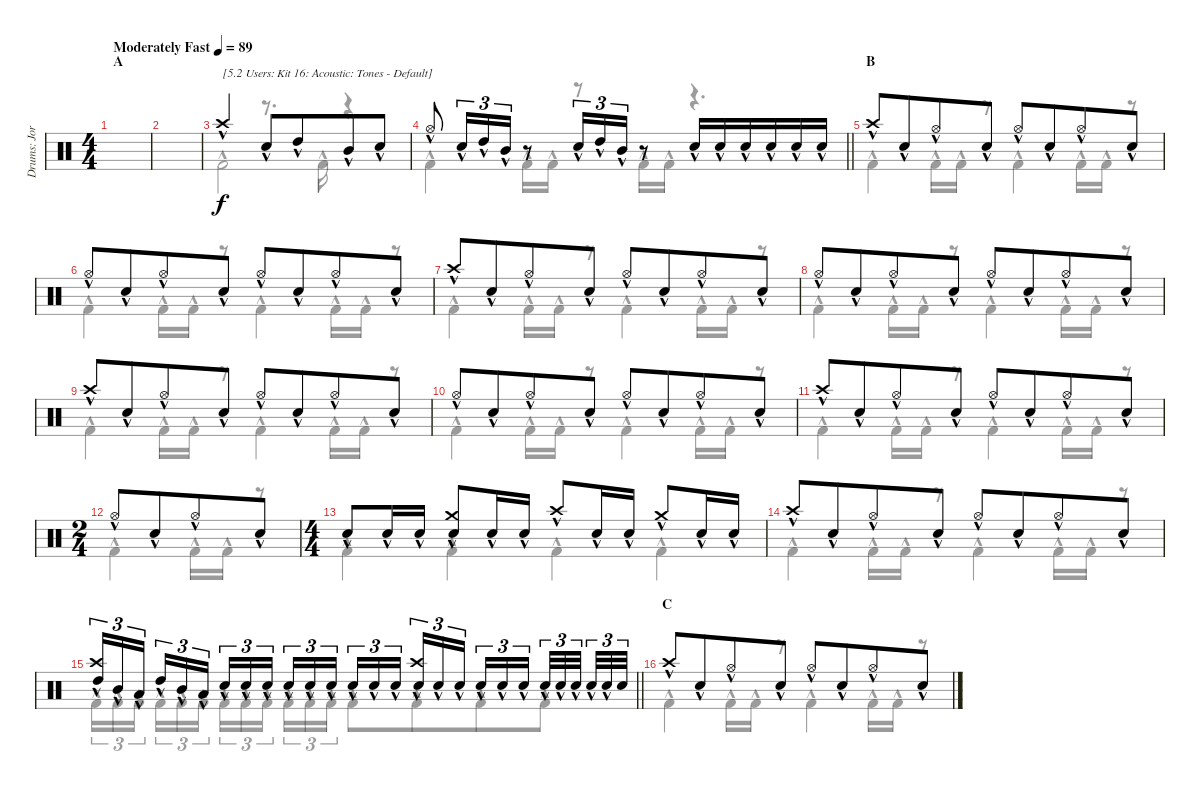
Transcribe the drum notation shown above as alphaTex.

\track ("Drums: Jorg" "Drums: Jor") {instrument percussion}
\staff {score}
\articulation defaults
\voice
\ts (4 4)
\section ("" "A")
\tempo (89 "Moderately Fast")
\clef neutral
\ks c
|
|
"Crash high (hit)"{hac}.2{txt "[5.2 Users: Kit 16: Acoustic: Tones - Default]"} "Snare (hit) 2"{hac}.8 "High Tom (hit)"{hac}.8{beam merge} "Mid Tom (hit)"{hac}.8 "Snare (hit) 2"{hac}.8 |
\barLineRight lightlight "Hi-Hat (open)"{hac}.8 "Snare (hit) 2"{hac}.16{tu (3 2)} "High Tom (hit)"{hac}.16{tu (3 2) beam merge} "Mid Tom (hit)"{hac}.16{tu (3 2)}
r.8 "Snare (hit) 2"{hac}.16{tu (3 2)} "High Tom (hit)"{hac}.16{tu (3 2) beam merge} "Mid Tom (hit)"{hac}.16{tu (3 2)} r.8 "Snare (hit) 2"{hac}.16 "Snare (hit) 2"{hac}.16{beam merge} "Snare (hit) 2"{hac}.16 "Snare (hit) 2"{hac}.16 "Snare (hit) 2"{hac}.16 "Snare (hit) 2"{hac}.16 |
\section ("" "B")
"Crash high (hit)"{hac}.8 "Snare (hit) 2"{hac}.8{beam merge} "Hi-Hat (open)"{hac}.8 "Snare (hit) 2"{hac}.8 "Hi-Hat (open)"{hac}.8 "Snare (hit) 2"{hac}.8{beam merge} "Hi-Hat (open)"{hac}.8 "Snare (hit) 2"{hac}.8 |
"Hi-Hat (open)"{hac}.8 "Snare (hit) 2"{hac}.8{beam merge} "Hi-Hat (open)"{hac}.8 "Snare (hit) 2"{hac}.8 "Hi-Hat (open)"{hac}.8 "Snare (hit) 2"{hac}.8{beam merge} "Hi-Hat (open)"{hac}.8 "Snare (hit) 2"{hac}.8 |
"Crash high (hit)"{hac}.8 "Snare (hit) 2"{hac}.8{beam merge} "Hi-Hat (open)"{hac}.8 "Snare (hit) 2"{hac}.8 "Hi-Hat (open)"{hac}.8 "Snare (hit) 2"{hac}.8{beam merge} "Hi-Hat (open)"{hac}.8 "Snare (hit) 2"{hac}.8 |
"Hi-Hat (open)"{hac}.8 "Snare (hit) 2"{hac}.8{beam merge} "Hi-Hat (open)"{hac}.8 "Snare (hit) 2"{hac}.8 "Hi-Hat (open)"{hac}.8 "Snare (hit) 2"{hac}.8{beam merge} "Hi-Hat (open)"{hac}.8 "Snare (hit) 2"{hac}.8 |
"Crash high (hit)"{hac}.8 "Snare (hit) 2"{hac}.8{beam merge} "Hi-Hat (open)"{hac}.8 "Snare (hit) 2"{hac}.8 "Hi-Hat (open)"{hac}.8 "Snare (hit) 2"{hac}.8{beam merge} "Hi-Hat (open)"{hac}.8 "Snare (hit) 2"{hac}.8 |
"Hi-Hat (open)"{hac}.8 "Snare (hit) 2"{hac}.8{beam merge} "Hi-Hat (open)"{hac}.8 "Snare (hit) 2"{hac}.8 "Hi-Hat (open)"{hac}.8 "Snare (hit) 2"{hac}.8{beam merge} "Hi-Hat (open)"{hac}.8 "Snare (hit) 2"{hac}.8 |
"Crash high (hit)"{hac}.8 "Snare (hit) 2"{hac}.8{beam merge} "Hi-Hat (open)"{hac}.8 "Snare (hit) 2"{hac}.8 "Hi-Hat (open)"{hac}.8 "Snare (hit) 2"{hac}.8{beam merge} "Hi-Hat (open)"{hac}.8 "Snare (hit) 2"{hac}.8 |
\ts (2 4)
"Hi-Hat (open)"{hac}.8 "Snare (hit) 2"{hac}.8{beam merge} "Hi-Hat (open)"{hac}.8 "Snare (hit) 2"{hac}.8 |
\ts (4 4)
"Electric Snare (hit)"{hac}.8 "Snare (hit) 2"{hac}.16 "Snare (hit) 2"{hac}.16 ("Crash medium (hit)"{hac} "Electric Snare (hit)"{hac}).8 "Snare (hit) 2"{hac}.16 "Snare (hit) 2"{hac}.16 "Crash high (hit)"{hac}.8 "Snare (hit) 2"{hac}.16 "Snare (hit) 2"{hac}.16 "Crash medium (hit)"{hac}.8 "Snare (hit) 2"{hac}.16 "Snare (hit) 2"{hac}.16 |
"Crash high (hit)"{hac}.8 "Snare (hit) 2"{hac}.8{beam merge} "Hi-Hat (open)"{hac}.8 "Snare (hit) 2"{hac}.8 "Hi-Hat (open)"{hac}.8 "Snare (hit) 2"{hac}.8{beam merge} "Hi-Hat (open)"{hac}.8 "Snare (hit) 2"{hac}.8 |
\barLineRight lightlight
("Crash high (hit)" "High Tom (hit)"{hac}).16{tu (3 2)} "Mid Tom (hit)"{hac}.16{tu (3 2)} "Low Tom (hit)"{hac}.16{tu (3 2) beam splitsecondary} "High Tom (hit)"{hac}.16{tu (3 2)} "Mid Tom (hit)"{hac}.16{tu (3 2)} "Low Tom (hit)"{hac}.16{tu (3 2)} "Electric Snare (hit)"{hac}.16{tu (3 2)} "Electric Snare (hit)"{hac}.16{tu (3 2)} "Electric Snare (hit)"{hac}.16{tu (3 2) beam splitsecondary} "Electric Snare (hit)"{hac}.16{tu (3 2)} "Electric Snare (hit)"{hac}.16{tu (3 2)} "Electric Snare (hit)"{hac}.16{tu (3 2)} "Electric Snare (hit)"{hac}.16{tu (3 2)} "Electric Snare (hit)"{hac}.16{tu (3 2)} "Electric Snare (hit)"{hac}.16{tu (3 2) beam splitsecondary} ("Crash high (hit)"{hac} "Snare (hit) 2"{hac}).16{tu (3 2)} "Electric Snare (hit)"{hac}.16{tu (3 2)} "Electric Snare (hit)"{hac}.16{tu (3 2)} "Electric Snare (hit)"{hac}.16{tu (3 2)} "Electric Snare (hit)"{hac}.16{tu (3 2)} "Electric Snare (hit)"{hac}.16{tu (3 2) beam splitsecondary} "Electric Snare (hit)"{hac}.32{tu (3 2)} "Electric Snare (hit)"{hac}.32{tu (3 2)} "Electric Snare (hit)"{hac}.32{tu (3 2) beam splitsecondary} "Electric Snare (hit)"{hac}.32{tu (3 2)} "Electric Snare (hit)"{hac}.32{tu (3 2)} "Electric Snare (hit)".32{tu (3 2)} |
\section ("" "C")
"Crash high (hit)"{hac}.8 "Snare (hit) 2"{hac}.8{beam merge} "Hi-Hat (open)"{hac}.8 "Snare (hit) 2"{hac}.8 "Hi-Hat (open)"{hac}.8 "Snare (hit) 2"{hac}.8{beam merge} "Hi-Hat (open)"{hac}.8 "Snare (hit) 2"{hac}.8
\voice
\clef neutral
\ottava regular
\simile none
\ks c
|
|
"Kick (hit) 2"{hac}.2 r.8{d} "Kick (hit) 2"{hac}.16 r.4 |
\barLineRight lightlight "Kick (hit) 2"{hac}.4 "Kick (hit) 2"{hac}.16 "Kick (hit) 2"{hac}.16
r.8 "Kick (hit) 2"{hac}.16 "Kick (hit) 2"{hac}.16 r.4{d} |
"Kick (hit) 2"{hac}.4 "Kick (hit) 2"{hac}.16 "Kick (hit) 2"{hac}.16 r.8 "Kick (hit) 2"{hac}.4 "Kick (hit) 2"{hac}.16 "Kick (hit) 2"{hac}.16 r.8 |
"Kick (hit) 2"{hac}.4 "Kick (hit) 2"{hac}.16 "Kick (hit) 2"{hac}.16 r.8 "Kick (hit) 2"{hac}.4 "Kick (hit) 2"{hac}.16 "Kick (hit) 2"{hac}.16 r.8 |
"Kick (hit) 2"{hac}.4 "Kick (hit) 2"{hac}.16 "Kick (hit) 2"{hac}.16 r.8 "Kick (hit) 2"{hac}.4 "Kick (hit) 2"{hac}.16 "Kick (hit) 2"{hac}.16 r.8 |
"Kick (hit) 2"{hac}.4 "Kick (hit) 2"{hac}.16 "Kick (hit) 2"{hac}.16 r.8 "Kick (hit) 2"{hac}.4 "Kick (hit) 2"{hac}.16 "Kick (hit) 2"{hac}.16 r.8 |
"Kick (hit) 2"{hac}.4 "Kick (hit) 2"{hac}.16 "Kick (hit) 2"{hac}.16 r.8 "Kick (hit) 2"{hac}.4 "Kick (hit) 2"{hac}.16 "Kick (hit) 2"{hac}.16 r.8 |
"Kick (hit) 2"{hac}.4 "Kick (hit) 2"{hac}.16 "Kick (hit) 2"{hac}.16 r.8 "Kick (hit) 2"{hac}.4 "Kick (hit) 2"{hac}.16 "Kick (hit) 2"{hac}.16 r.8 |
"Kick (hit) 2"{hac}.4 "Kick (hit) 2"{hac}.16 "Kick (hit) 2"{hac}.16 r.8 "Kick (hit) 2"{hac}.4 "Kick (hit) 2"{hac}.16 "Kick (hit) 2"{hac}.16 r.8 |
"Kick (hit) 2"{hac}.4 "Kick (hit) 2"{hac}.16 "Kick (hit) 2"{hac}.16 r.8 |
"Kick (hit) 2"{hac}.4 "Kick (hit) 2"{hac}.4 "Kick (hit) 2"{hac}.4 "Kick (hit) 2"{hac}.4 |
"Kick (hit) 2"{hac}.4 "Kick (hit) 2"{hac}.16 "Kick (hit) 2"{hac}.16 r.8 "Kick (hit) 2"{hac}.4 "Kick (hit) 2"{hac}.16 "Kick (hit) 2"{hac}.16 r.8 |
\barLineRight lightlight "Kick (hit) 2"{hac}.16{tu (3 2)} "Kick (hit) 2"{hac}.16{tu (3 2)} "Kick (hit) 2"{hac}.16{tu (3 2) beam splitsecondary} "Kick (hit) 2"{hac}.16{tu (3 2)} "Kick (hit) 2"{hac}.16{tu (3 2)} "Kick (hit) 2"{hac}.16{tu (3 2)} "Kick (hit) 2"{hac}.16{tu (3 2)} "Kick (hit) 2"{hac}.16{tu (3 2)} "Kick (hit) 2"{hac}.16{tu (3 2) beam splitsecondary} "Kick (hit) 2"{hac}.16{tu (3 2)} "Kick (hit) 2"{hac}.16{tu (3 2)} "Kick (hit) 2"{hac}.16{tu (3 2)} "Kick (hit) 2"{hac}.8 "Kick (hit) 2"{hac}.8{beam merge} "Kick (hit) 2"{hac}.8 "Kick (hit) 2"{hac}.8
|
"Kick (hit) 2"{hac}.4 "Kick (hit) 2"{hac}.16 "Kick (hit) 2"{hac}.16 r.8 "Kick (hit) 2"{hac}.4 "Kick (hit) 2"{hac}.16 "Kick (hit) 2"{hac}.16 r.8
